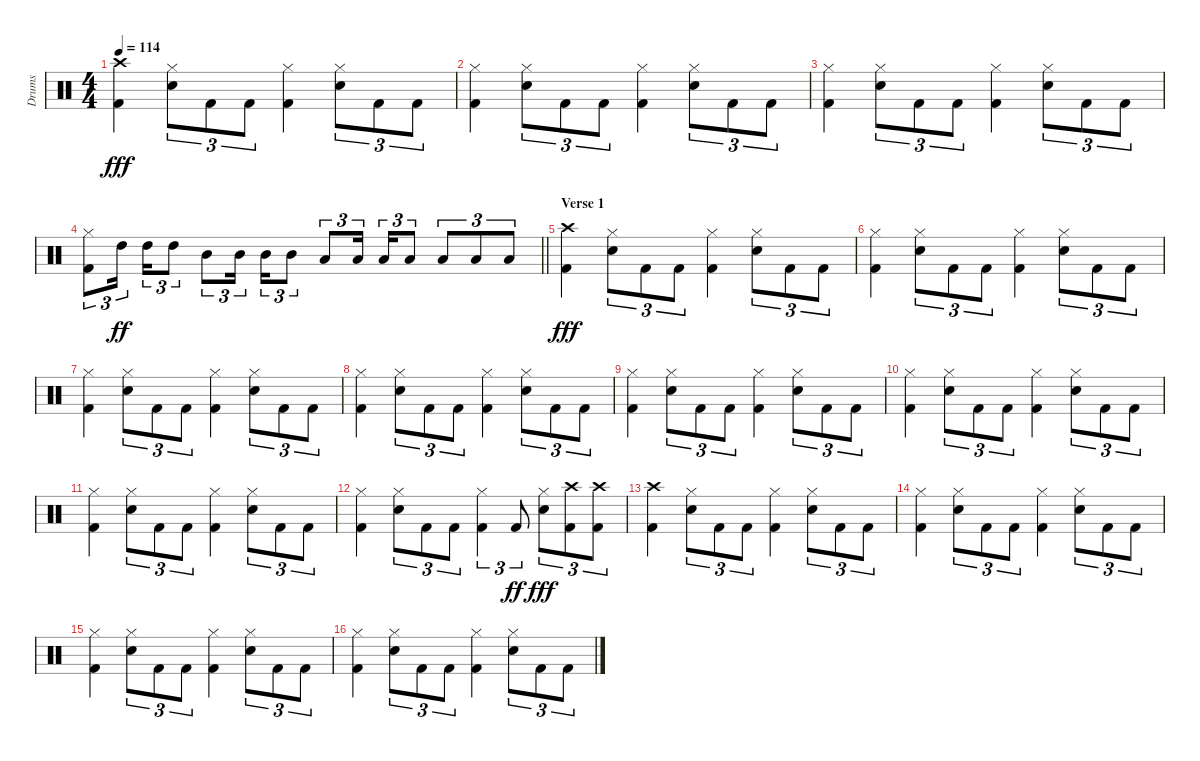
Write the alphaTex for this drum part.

\track ("Drums" "Drums") {instrument percussion}
\staff {score}
\articulation defaults
\ts (4 4)
\tempo 114
\clef neutral
\ks c
("Crash high (hit)" "Kick (hit) 2").4{dy fff} ("Hi-Hat (closed)" "Snare (hit) 2").8{tu (3 2)} "Kick (hit) 2".8{tu (3 2)} "Kick (hit) 2".8{tu (3 2)} ("Hi-Hat (closed)" "Kick (hit) 2").4 ("Hi-Hat (closed)" "Snare (hit) 2").8{tu (3 2)} "Kick (hit) 2".8{tu (3 2)} "Kick (hit) 2".8{tu (3 2)} |
("Hi-Hat (closed)" "Kick (hit) 2").4 ("Hi-Hat (closed)" "Snare (hit) 2").8{tu (3 2)} "Kick (hit) 2".8{tu (3 2)} "Kick (hit) 2".8{tu (3 2)} ("Hi-Hat (closed)" "Kick (hit) 2").4 ("Hi-Hat (closed)" "Snare (hit) 2").8{tu (3 2)} "Kick (hit) 2".8{tu (3 2)} "Kick (hit) 2".8{tu (3 2)} |
("Hi-Hat (closed)" "Kick (hit) 2").4 ("Hi-Hat (closed)" "Snare (hit) 2").8{tu (3 2)} "Kick (hit) 2".8{tu (3 2)} "Kick (hit) 2".8{tu (3 2)} ("Hi-Hat (closed)" "Kick (hit) 2").4 ("Hi-Hat (closed)" "Snare (hit) 2").8{tu (3 2)} "Kick (hit) 2".8{tu (3 2)} "Kick (hit) 2".8{tu (3 2)} |
\barLineRight lightlight
("Hi-Hat (closed)" "Kick (hit) 2").8{tu (3 2)} "High Tom (hit)".16{tu (3 2) dy ff beam splitsecondary} "High Tom (hit)".16{tu (3 2)} "High Tom (hit)".8{tu (3 2)} "Mid Tom (hit)".8{tu (3 2)} "Mid Tom (hit)".16{tu (3 2) beam splitsecondary} "Mid Tom (hit)".16{tu (3 2)} "Mid Tom (hit)".8{tu (3 2)} "Low Tom (hit)".8{tu (3 2)} "Low Tom (hit)".16{tu (3 2) beam splitsecondary} "Low Tom (hit)".16{tu (3 2)} "Low Tom (hit)".8{tu (3 2)} "Low Floor Tom (hit)".8{tu (3 2)} "Low Floor Tom (hit)".8{tu (3 2)} "Low Floor Tom (hit)".8{tu (3 2)} |
\section ("" "Verse 1")
("Crash high (hit)" "Kick (hit) 2").4{dy fff} ("Hi-Hat (closed)" "Snare (hit) 2").8{tu (3 2)} "Kick (hit) 2".8{tu (3 2)} "Kick (hit) 2".8{tu (3 2)} ("Hi-Hat (closed)" "Kick (hit) 2").4 ("Hi-Hat (closed)" "Snare (hit) 2").8{tu (3 2)} "Kick (hit) 2".8{tu (3 2)} "Kick (hit) 2".8{tu (3 2)} |
("Hi-Hat (closed)" "Kick (hit) 2").4 ("Hi-Hat (closed)" "Snare (hit) 2").8{tu (3 2)} "Kick (hit) 2".8{tu (3 2)} "Kick (hit) 2".8{tu (3 2)} ("Hi-Hat (closed)" "Kick (hit) 2").4 ("Hi-Hat (closed)" "Snare (hit) 2").8{tu (3 2)} "Kick (hit) 2".8{tu (3 2)} "Kick (hit) 2".8{tu (3 2)} |
("Hi-Hat (closed)" "Kick (hit) 2").4 ("Hi-Hat (closed)" "Snare (hit) 2").8{tu (3 2)} "Kick (hit) 2".8{tu (3 2)} "Kick (hit) 2".8{tu (3 2)} ("Hi-Hat (closed)" "Kick (hit) 2").4 ("Hi-Hat (closed)" "Snare (hit) 2").8{tu (3 2)} "Kick (hit) 2".8{tu (3 2)} "Kick (hit) 2".8{tu (3 2)} |
("Hi-Hat (closed)" "Kick (hit) 2").4 ("Hi-Hat (closed)" "Snare (hit) 2").8{tu (3 2)} "Kick (hit) 2".8{tu (3 2)} "Kick (hit) 2".8{tu (3 2)} ("Hi-Hat (closed)" "Kick (hit) 2").4 ("Hi-Hat (closed)" "Snare (hit) 2").8{tu (3 2)} "Kick (hit) 2".8{tu (3 2)} "Kick (hit) 2".8{tu (3 2)} |
("Hi-Hat (closed)" "Kick (hit) 2").4 ("Hi-Hat (closed)" "Snare (hit) 2").8{tu (3 2)} "Kick (hit) 2".8{tu (3 2)} "Kick (hit) 2".8{tu (3 2)} ("Hi-Hat (closed)" "Kick (hit) 2").4 ("Hi-Hat (closed)" "Snare (hit) 2").8{tu (3 2)} "Kick (hit) 2".8{tu (3 2)} "Kick (hit) 2".8{tu (3 2)} |
("Hi-Hat (closed)" "Kick (hit) 2").4 ("Hi-Hat (closed)" "Snare (hit) 2").8{tu (3 2)} "Kick (hit) 2".8{tu (3 2)} "Kick (hit) 2".8{tu (3 2)} ("Hi-Hat (closed)" "Kick (hit) 2").4 ("Hi-Hat (closed)" "Snare (hit) 2").8{tu (3 2)} "Kick (hit) 2".8{tu (3 2)} "Kick (hit) 2".8{tu (3 2)} |
("Hi-Hat (closed)" "Kick (hit) 2").4 ("Hi-Hat (closed)" "Snare (hit) 2").8{tu (3 2)} "Kick (hit) 2".8{tu (3 2)} "Kick (hit) 2".8{tu (3 2)} ("Hi-Hat (closed)" "Kick (hit) 2").4 ("Hi-Hat (closed)" "Snare (hit) 2").8{tu (3 2)} "Kick (hit) 2".8{tu (3 2)} "Kick (hit) 2".8{tu (3 2)} |
("Hi-Hat (closed)" "Kick (hit) 2").4 ("Hi-Hat (closed)" "Snare (hit) 2").8{tu (3 2)} "Kick (hit) 2".8{tu (3 2)} "Kick (hit) 2".8{tu (3 2)} ("Hi-Hat (closed)" "Kick (hit) 2").4{tu (3 2)} "Kick (hit) 2".8{tu (3 2) dy ff} ("Hi-Hat (closed)" "Snare (hit) 2").8{tu (3 2) dy fff} ("Crash high (hit)" "Kick (hit) 2").8{tu (3 2)} ("Crash high (hit)" "Kick (hit) 2").8{tu (3 2)} |
("Crash high (hit)" "Kick (hit) 2").4 ("Hi-Hat (closed)" "Snare (hit) 2").8{tu (3 2)} "Kick (hit) 2".8{tu (3 2)} "Kick (hit) 2".8{tu (3 2)} ("Hi-Hat (closed)" "Kick (hit) 2").4 ("Hi-Hat (closed)" "Snare (hit) 2").8{tu (3 2)} "Kick (hit) 2".8{tu (3 2)} "Kick (hit) 2".8{tu (3 2)} |
("Hi-Hat (closed)" "Kick (hit) 2").4 ("Hi-Hat (closed)" "Snare (hit) 2").8{tu (3 2)} "Kick (hit) 2".8{tu (3 2)} "Kick (hit) 2".8{tu (3 2)} ("Hi-Hat (closed)" "Kick (hit) 2").4 ("Hi-Hat (closed)" "Snare (hit) 2").8{tu (3 2)} "Kick (hit) 2".8{tu (3 2)} "Kick (hit) 2".8{tu (3 2)} |
("Hi-Hat (closed)" "Kick (hit) 2").4 ("Hi-Hat (closed)" "Snare (hit) 2").8{tu (3 2)} "Kick (hit) 2".8{tu (3 2)} "Kick (hit) 2".8{tu (3 2)} ("Hi-Hat (closed)" "Kick (hit) 2").4 ("Hi-Hat (closed)" "Snare (hit) 2").8{tu (3 2)} "Kick (hit) 2".8{tu (3 2)} "Kick (hit) 2".8{tu (3 2)} |
("Hi-Hat (closed)" "Kick (hit) 2").4 ("Hi-Hat (closed)" "Snare (hit) 2").8{tu (3 2)} "Kick (hit) 2".8{tu (3 2)} "Kick (hit) 2".8{tu (3 2)} ("Hi-Hat (closed)" "Kick (hit) 2").4 ("Hi-Hat (closed)" "Snare (hit) 2").8{tu (3 2)} "Kick (hit) 2".8{tu (3 2)} "Kick (hit) 2".8{tu (3 2)}
